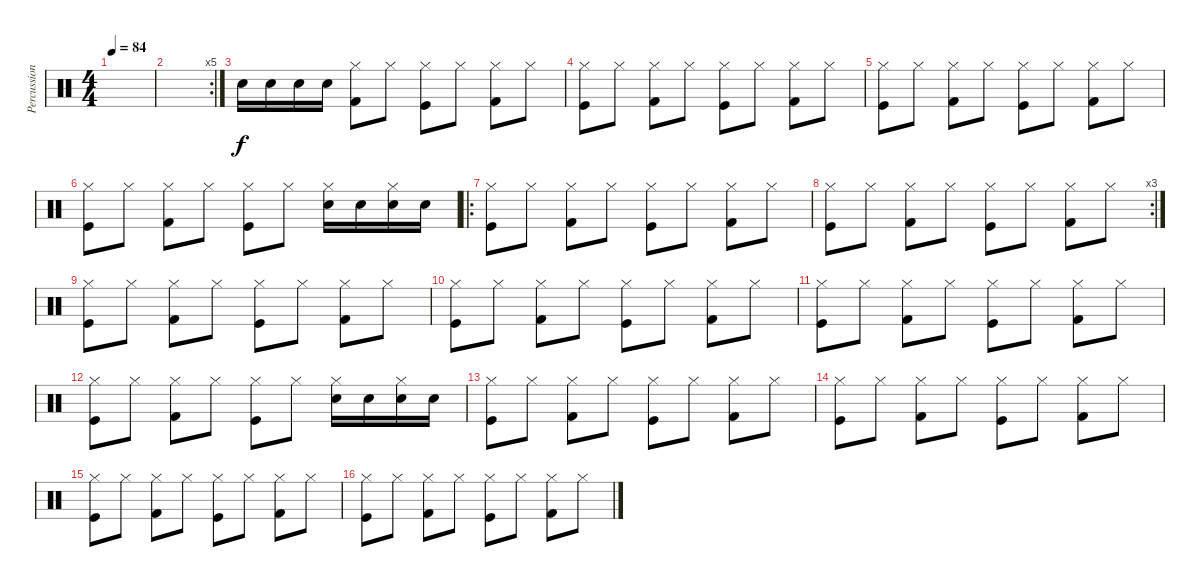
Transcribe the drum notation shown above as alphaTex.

\track ("Percussions" "Percussion") {instrument percussion}
\staff {score}
\articulation defaults
\ts (4 4)
\tempo 84
\clef neutral
\ks c
|
\rc 5
|
"Snare (hit) 2".16 "Snare (hit) 2".16 "Snare (hit) 2".16 "Snare (hit) 2".16 ("Hi-Hat (closed)" "Kick (hit) 2").8 "Hi-Hat (closed)".8 ("Hi-Hat (closed)" "Kick (hit)").8 "Hi-Hat (closed)".8 ("Hi-Hat (closed)" "Kick (hit) 2").8 "Hi-Hat (closed)".8 |
("Hi-Hat (closed)" "Kick (hit)").8 "Hi-Hat (closed)".8 ("Hi-Hat (closed)" "Kick (hit) 2").8 "Hi-Hat (closed)".8 ("Hi-Hat (closed)" "Kick (hit)").8 "Hi-Hat (closed)".8 ("Hi-Hat (closed)" "Kick (hit) 2").8 "Hi-Hat (closed)".8 |
("Hi-Hat (closed)" "Kick (hit)").8 "Hi-Hat (closed)".8 ("Hi-Hat (closed)" "Kick (hit) 2").8 "Hi-Hat (closed)".8 ("Hi-Hat (closed)" "Kick (hit)").8 "Hi-Hat (closed)".8 ("Hi-Hat (closed)" "Kick (hit) 2").8 "Hi-Hat (closed)".8 |
("Hi-Hat (closed)" "Kick (hit)").8 "Hi-Hat (closed)".8 ("Hi-Hat (closed)" "Kick (hit) 2").8 "Hi-Hat (closed)".8 ("Hi-Hat (closed)" "Kick (hit)").8 "Hi-Hat (closed)".8 ("Hi-Hat (closed)" "Snare (hit) 2").16 "Snare (hit) 2".16 ("Hi-Hat (closed)" "Snare (hit) 2").16 "Snare (hit) 2".16 |
\ro
("Hi-Hat (closed)" "Kick (hit)").8 "Hi-Hat (closed)".8 ("Hi-Hat (closed)" "Kick (hit) 2").8 "Hi-Hat (closed)".8 ("Hi-Hat (closed)" "Kick (hit)").8 "Hi-Hat (closed)".8 ("Hi-Hat (closed)" "Kick (hit) 2").8 "Hi-Hat (closed)".8 |
\rc 3
("Hi-Hat (closed)" "Kick (hit)").8 "Hi-Hat (closed)".8 ("Hi-Hat (closed)" "Kick (hit) 2").8 "Hi-Hat (closed)".8 ("Hi-Hat (closed)" "Kick (hit)").8 "Hi-Hat (closed)".8 ("Hi-Hat (closed)" "Kick (hit) 2").8 "Hi-Hat (closed)".8 |
("Hi-Hat (closed)" "Kick (hit)").8 "Hi-Hat (closed)".8 ("Hi-Hat (closed)" "Kick (hit) 2").8 "Hi-Hat (closed)".8 ("Hi-Hat (closed)" "Kick (hit)").8 "Hi-Hat (closed)".8 ("Hi-Hat (closed)" "Kick (hit) 2").8 "Hi-Hat (closed)".8 |
("Hi-Hat (closed)" "Kick (hit)").8 "Hi-Hat (closed)".8 ("Hi-Hat (closed)" "Kick (hit) 2").8 "Hi-Hat (closed)".8 ("Hi-Hat (closed)" "Kick (hit)").8 "Hi-Hat (closed)".8 ("Hi-Hat (closed)" "Kick (hit) 2").8 "Hi-Hat (closed)".8 |
("Hi-Hat (closed)" "Kick (hit)").8 "Hi-Hat (closed)".8 ("Hi-Hat (closed)" "Kick (hit) 2").8 "Hi-Hat (closed)".8 ("Hi-Hat (closed)" "Kick (hit)").8 "Hi-Hat (closed)".8 ("Hi-Hat (closed)" "Kick (hit) 2").8 "Hi-Hat (closed)".8 |
("Hi-Hat (closed)" "Kick (hit)").8 "Hi-Hat (closed)".8 ("Hi-Hat (closed)" "Kick (hit) 2").8 "Hi-Hat (closed)".8 ("Hi-Hat (closed)" "Kick (hit)").8 "Hi-Hat (closed)".8 ("Hi-Hat (closed)" "Snare (hit) 2").16 "Snare (hit) 2".16 ("Hi-Hat (closed)" "Snare (hit) 2").16 "Snare (hit) 2".16 |
("Hi-Hat (closed)" "Kick (hit)").8 "Hi-Hat (closed)".8 ("Hi-Hat (closed)" "Kick (hit) 2").8 "Hi-Hat (closed)".8 ("Hi-Hat (closed)" "Kick (hit)").8 "Hi-Hat (closed)".8 ("Hi-Hat (closed)" "Kick (hit) 2").8 "Hi-Hat (closed)".8 |
("Hi-Hat (closed)" "Kick (hit)").8 "Hi-Hat (closed)".8 ("Hi-Hat (closed)" "Kick (hit) 2").8 "Hi-Hat (closed)".8 ("Hi-Hat (closed)" "Kick (hit)").8 "Hi-Hat (closed)".8 ("Hi-Hat (closed)" "Kick (hit) 2").8 "Hi-Hat (closed)".8 |
("Hi-Hat (closed)" "Kick (hit)").8 "Hi-Hat (closed)".8 ("Hi-Hat (closed)" "Kick (hit) 2").8 "Hi-Hat (closed)".8 ("Hi-Hat (closed)" "Kick (hit)").8 "Hi-Hat (closed)".8 ("Hi-Hat (closed)" "Kick (hit) 2").8 "Hi-Hat (closed)".8 |
("Hi-Hat (closed)" "Kick (hit)").8 "Hi-Hat (closed)".8 ("Hi-Hat (closed)" "Kick (hit) 2").8 "Hi-Hat (closed)".8 ("Hi-Hat (closed)" "Kick (hit)").8 "Hi-Hat (closed)".8 ("Hi-Hat (closed)" "Kick (hit) 2").8 "Hi-Hat (closed)".8
